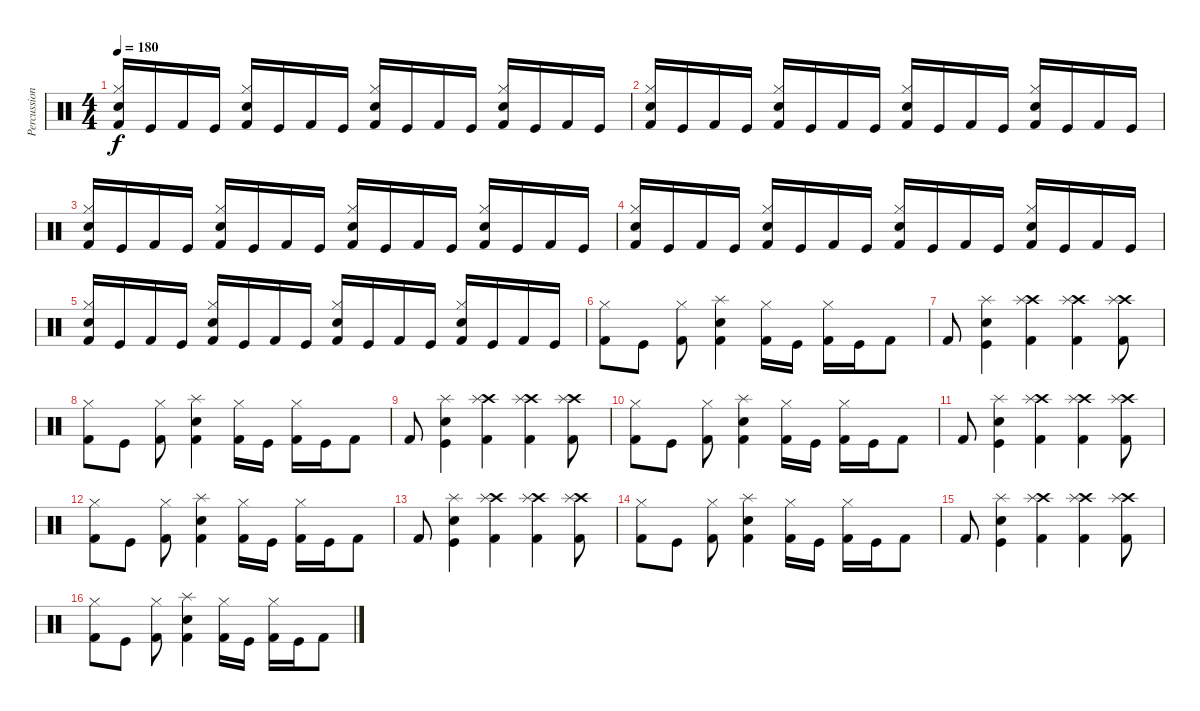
\track ("Percussion" "Percussion") {instrument percussion}
\staff {score}
\articulation defaults
\ts (4 4)
\tempo 180
\clef neutral
\ks c
("Electric Snare (hit)" "Hi-Hat (closed)" "Kick (hit) 2").16{dy f} "Kick (hit)".16 "Kick (hit) 2".16 "Kick (hit)".16 ("Hi-Hat (closed)" "Electric Snare (hit)" "Kick (hit) 2").16 "Kick (hit)".16 "Kick (hit) 2".16 "Kick (hit)".16 ("Hi-Hat (closed)" "Electric Snare (hit)" "Kick (hit) 2").16 "Kick (hit)".16 "Kick (hit) 2".16 "Kick (hit)".16 ("Hi-Hat (closed)" "Electric Snare (hit)" "Kick (hit) 2").16 "Kick (hit)".16 "Kick (hit) 2".16 "Kick (hit)".16 |
("Electric Snare (hit)" "Hi-Hat (closed)" "Kick (hit) 2").16 "Kick (hit)".16 "Kick (hit) 2".16 "Kick (hit)".16 ("Hi-Hat (closed)" "Electric Snare (hit)" "Kick (hit) 2").16 "Kick (hit)".16 "Kick (hit) 2".16 "Kick (hit)".16 ("Hi-Hat (closed)" "Electric Snare (hit)" "Kick (hit) 2").16 "Kick (hit)".16 "Kick (hit) 2".16 "Kick (hit)".16 ("Hi-Hat (closed)" "Electric Snare (hit)" "Kick (hit) 2").16 "Kick (hit)".16 "Kick (hit) 2".16 "Kick (hit)".16 |
("Electric Snare (hit)" "Hi-Hat (closed)" "Kick (hit) 2").16 "Kick (hit)".16 "Kick (hit) 2".16 "Kick (hit)".16 ("Hi-Hat (closed)" "Electric Snare (hit)" "Kick (hit) 2").16 "Kick (hit)".16 "Kick (hit) 2".16 "Kick (hit)".16 ("Hi-Hat (closed)" "Electric Snare (hit)" "Kick (hit) 2").16 "Kick (hit)".16 "Kick (hit) 2".16 "Kick (hit)".16 ("Hi-Hat (closed)" "Electric Snare (hit)" "Kick (hit) 2").16 "Kick (hit)".16 "Kick (hit) 2".16 "Kick (hit)".16 |
("Electric Snare (hit)" "Hi-Hat (closed)" "Kick (hit) 2").16 "Kick (hit)".16 "Kick (hit) 2".16 "Kick (hit)".16 ("Hi-Hat (closed)" "Electric Snare (hit)" "Kick (hit) 2").16 "Kick (hit)".16 "Kick (hit) 2".16 "Kick (hit)".16 ("Hi-Hat (closed)" "Electric Snare (hit)" "Kick (hit) 2").16 "Kick (hit)".16 "Kick (hit) 2".16 "Kick (hit)".16 ("Hi-Hat (closed)" "Electric Snare (hit)" "Kick (hit) 2").16 "Kick (hit)".16 "Kick (hit) 2".16 "Kick (hit)".16 |
("Electric Snare (hit)" "Hi-Hat (closed)" "Kick (hit) 2").16 "Kick (hit)".16 "Kick (hit) 2".16 "Kick (hit)".16 ("Hi-Hat (closed)" "Electric Snare (hit)" "Kick (hit) 2").16 "Kick (hit)".16 "Kick (hit) 2".16 "Kick (hit)".16 ("Hi-Hat (closed)" "Electric Snare (hit)" "Kick (hit) 2").16 "Kick (hit)".16 "Kick (hit) 2".16 "Kick (hit)".16 ("Hi-Hat (closed)" "Electric Snare (hit)" "Kick (hit) 2").16 "Kick (hit)".16 "Kick (hit) 2".16 "Kick (hit)".16 |
("Hi-Hat (closed)" "Kick (hit) 2").8 "Kick (hit)".8 ("Hi-Hat (closed)" "Kick (hit) 2").8 ("Splash (hit)" "Electric Snare (hit)" "Kick (hit) 2").4 ("Hi-Hat (closed)" "Kick (hit) 2").16 "Kick (hit)".16 ("Hi-Hat (closed)" "Kick (hit) 2").16 "Kick (hit)".16 "Kick (hit) 2".8 |
"Kick (hit) 2".8 ("Splash (hit)" "Electric Snare (hit)" "Kick (hit)").4 ("Crash high (hit)" "Splash (hit)" "Kick (hit) 2").4 ("Crash high (hit)" "Splash (hit)" "Kick (hit) 2").4 ("Crash high (hit)" "Splash (hit)" "Kick (hit) 2").8 |
("Hi-Hat (closed)" "Kick (hit) 2").8 "Kick (hit)".8 ("Hi-Hat (closed)" "Kick (hit) 2").8 ("Splash (hit)" "Electric Snare (hit)" "Kick (hit) 2").4 ("Hi-Hat (closed)" "Kick (hit) 2").16 "Kick (hit)".16 ("Hi-Hat (closed)" "Kick (hit) 2").16 "Kick (hit)".16 "Kick (hit) 2".8 |
"Kick (hit) 2".8 ("Splash (hit)" "Electric Snare (hit)" "Kick (hit)").4 ("Crash high (hit)" "Splash (hit)" "Kick (hit) 2").4 ("Crash high (hit)" "Splash (hit)" "Kick (hit) 2").4 ("Crash high (hit)" "Splash (hit)" "Kick (hit) 2").8 |
("Hi-Hat (closed)" "Kick (hit) 2").8 "Kick (hit)".8 ("Hi-Hat (closed)" "Kick (hit) 2").8 ("Splash (hit)" "Electric Snare (hit)" "Kick (hit) 2").4 ("Hi-Hat (closed)" "Kick (hit) 2").16 "Kick (hit)".16 ("Hi-Hat (closed)" "Kick (hit) 2").16 "Kick (hit)".16 "Kick (hit) 2".8 |
"Kick (hit) 2".8 ("Splash (hit)" "Electric Snare (hit)" "Kick (hit)").4 ("Crash high (hit)" "Splash (hit)" "Kick (hit) 2").4 ("Crash high (hit)" "Splash (hit)" "Kick (hit) 2").4 ("Crash high (hit)" "Splash (hit)" "Kick (hit) 2").8 |
("Hi-Hat (closed)" "Kick (hit) 2").8 "Kick (hit)".8 ("Hi-Hat (closed)" "Kick (hit) 2").8 ("Splash (hit)" "Electric Snare (hit)" "Kick (hit) 2").4 ("Hi-Hat (closed)" "Kick (hit) 2").16 "Kick (hit)".16 ("Hi-Hat (closed)" "Kick (hit) 2").16 "Kick (hit)".16 "Kick (hit) 2".8 |
"Kick (hit) 2".8 ("Splash (hit)" "Electric Snare (hit)" "Kick (hit)").4 ("Crash high (hit)" "Splash (hit)" "Kick (hit) 2").4 ("Crash high (hit)" "Splash (hit)" "Kick (hit) 2").4 ("Crash high (hit)" "Splash (hit)" "Kick (hit) 2").8 |
("Hi-Hat (closed)" "Kick (hit) 2").8 "Kick (hit)".8 ("Hi-Hat (closed)" "Kick (hit) 2").8 ("Splash (hit)" "Electric Snare (hit)" "Kick (hit) 2").4 ("Hi-Hat (closed)" "Kick (hit) 2").16 "Kick (hit)".16 ("Hi-Hat (closed)" "Kick (hit) 2").16 "Kick (hit)".16 "Kick (hit) 2".8 |
"Kick (hit) 2".8 ("Splash (hit)" "Electric Snare (hit)" "Kick (hit)").4 ("Crash high (hit)" "Splash (hit)" "Kick (hit) 2").4 ("Crash high (hit)" "Splash (hit)" "Kick (hit) 2").4 ("Crash high (hit)" "Splash (hit)" "Kick (hit) 2").8 |
("Hi-Hat (closed)" "Kick (hit) 2").8 "Kick (hit)".8 ("Hi-Hat (closed)" "Kick (hit) 2").8 ("Splash (hit)" "Electric Snare (hit)" "Kick (hit) 2").4 ("Hi-Hat (closed)" "Kick (hit) 2").16 "Kick (hit)".16 ("Hi-Hat (closed)" "Kick (hit) 2").16 "Kick (hit)".16 "Kick (hit) 2".8
